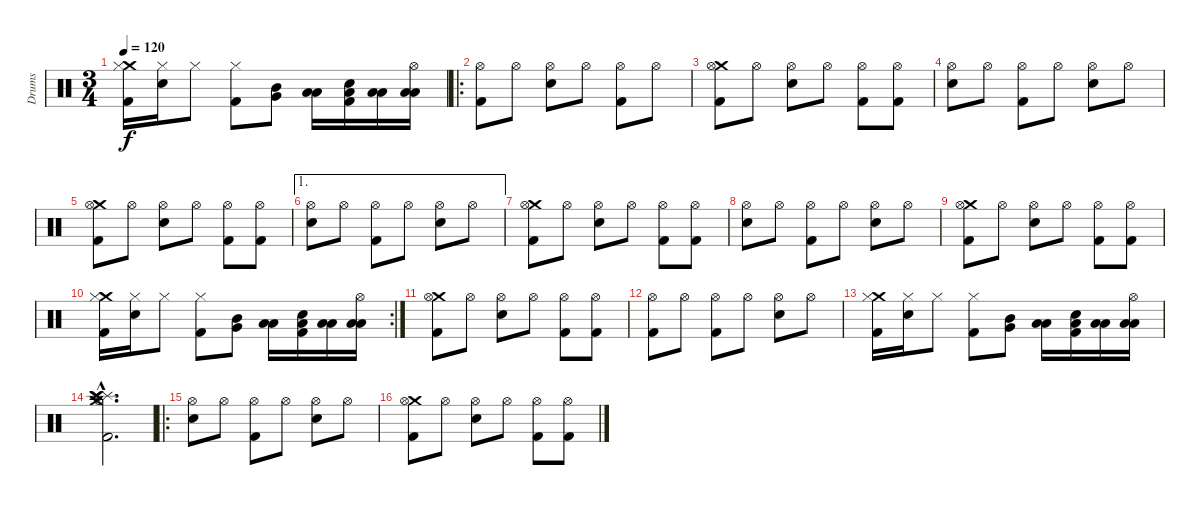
\track ("Drums" "Drums") {instrument percussion}
\staff {score}
\articulation defaults
\ts (3 4)
\tempo 120
\clef neutral
\ks c
("Crash medium (hit)" "Hi-Hat (closed)" "Kick (hit) 2").16{dy f} ("Hi-Hat (closed)" "Electric Snare (hit)").16 "Hi-Hat (closed)".8 ("Hi-Hat (closed)" "Kick (hit) 2").8 ("Very Low Tom (hit)" "Mid Tom (hit)").8 ("Low Floor Tom (hit)" "Low Tom (hit)").16 ("Kick (hit) 2" "Low Tom (hit)" "Electric Snare (hit)").16 ("Low Floor Tom (hit)" "Low Tom (hit)").16 ("Low Floor Tom (hit)" "Low Tom (hit)" "Hi-Hat (open)").16 |
\ro
("Kick (hit) 2" "Hi-Hat (open)").8 "Hi-Hat (open)".8 ("Electric Snare (hit)" "Hi-Hat (open)").8 "Hi-Hat (open)".8 ("Kick (hit) 2" "Hi-Hat (open)").8 "Hi-Hat (open)".8 |
("Crash medium (hit)" "Kick (hit) 2" "Hi-Hat (open)").8 "Hi-Hat (open)".8 ("Electric Snare (hit)" "Hi-Hat (open)").8 "Hi-Hat (open)".8 ("Kick (hit) 2" "Hi-Hat (open)").8 ("Kick (hit) 2" "Hi-Hat (open)").8 |
("Electric Snare (hit)" "Hi-Hat (open)").8 "Hi-Hat (open)".8 ("Kick (hit) 2" "Hi-Hat (open)").8 "Hi-Hat (open)".8 ("Electric Snare (hit)" "Hi-Hat (open)").8 "Hi-Hat (open)".8 |
("Crash medium (hit)" "Kick (hit) 2" "Hi-Hat (open)").8 "Hi-Hat (open)".8 ("Electric Snare (hit)" "Hi-Hat (open)").8 "Hi-Hat (open)".8 ("Kick (hit) 2" "Hi-Hat (open)").8 ("Kick (hit) 2" "Hi-Hat (open)").8 |
\ae 1
("Electric Snare (hit)" "Hi-Hat (open)").8 "Hi-Hat (open)".8 ("Kick (hit) 2" "Hi-Hat (open)").8 "Hi-Hat (open)".8 ("Electric Snare (hit)" "Hi-Hat (open)").8 "Hi-Hat (open)".8 |
("Crash medium (hit)" "Kick (hit) 2" "Hi-Hat (open)").8 "Hi-Hat (open)".8 ("Electric Snare (hit)" "Hi-Hat (open)").8 "Hi-Hat (open)".8 ("Kick (hit) 2" "Hi-Hat (open)").8 ("Kick (hit) 2" "Hi-Hat (open)").8 |
("Electric Snare (hit)" "Hi-Hat (open)").8 "Hi-Hat (open)".8 ("Kick (hit) 2" "Hi-Hat (open)").8 "Hi-Hat (open)".8 ("Electric Snare (hit)" "Hi-Hat (open)").8 "Hi-Hat (open)".8 |
("Crash medium (hit)" "Kick (hit) 2" "Hi-Hat (open)").8 "Hi-Hat (open)".8 ("Electric Snare (hit)" "Hi-Hat (open)").8 "Hi-Hat (open)".8 ("Kick (hit) 2" "Hi-Hat (open)").8 ("Kick (hit) 2" "Hi-Hat (open)").8 |
\rc 2
("Crash medium (hit)" "Hi-Hat (closed)" "Kick (hit) 2").16 ("Hi-Hat (closed)" "Electric Snare (hit)").16 "Hi-Hat (closed)".8 ("Hi-Hat (closed)" "Kick (hit) 2").8 ("Very Low Tom (hit)" "Mid Tom (hit)").8 ("Low Floor Tom (hit)" "Low Tom (hit)").16 ("Kick (hit) 2" "Low Tom (hit)" "Electric Snare (hit)").16 ("Low Floor Tom (hit)" "Low Tom (hit)").16 ("Low Floor Tom (hit)" "Low Tom (hit)" "Hi-Hat (open)").16 |
("Crash medium (hit)" "Kick (hit) 2" "Hi-Hat (open)").8 "Hi-Hat (open)".8 ("Electric Snare (hit)" "Hi-Hat (open)").8 "Hi-Hat (open)".8 ("Kick (hit) 2" "Hi-Hat (open)").8 ("Kick (hit) 2" "Hi-Hat (open)").8 |
("Kick (hit) 2" "Hi-Hat (open)").8 "Hi-Hat (open)".8 ("Kick (hit) 2" "Hi-Hat (open)").8 "Hi-Hat (open)".8 ("Electric Snare (hit)" "Hi-Hat (open)").8 "Hi-Hat (open)".8 |
("Crash medium (hit)" "Hi-Hat (closed)" "Kick (hit) 2").16 ("Hi-Hat (closed)" "Electric Snare (hit)").16 "Hi-Hat (closed)".8 ("Hi-Hat (closed)" "Kick (hit) 2").8 ("Very Low Tom (hit)" "Mid Tom (hit)").8 ("Low Floor Tom (hit)" "Low Tom (hit)").16 ("Kick (hit) 2" "Low Tom (hit)" "Electric Snare (hit)").16 ("Low Floor Tom (hit)" "Low Tom (hit)").16 ("Low Floor Tom (hit)" "Low Tom (hit)" "Hi-Hat (open)").16 |
("Splash (hit)"{hac} "Crash medium (hit)"{hac} "Hi-Hat (open)"{hac} "Kick (hit) 2"{hac} "Crash high (hit)"{hac} "Crash high (hit)"{hac}).2{d} |
\ro
("Electric Snare (hit)" "Hi-Hat (open)").8 "Hi-Hat (open)".8 ("Kick (hit) 2" "Hi-Hat (open)").8 "Hi-Hat (open)".8 ("Electric Snare (hit)" "Hi-Hat (open)").8 "Hi-Hat (open)".8 |
("Crash medium (hit)" "Kick (hit) 2" "Hi-Hat (open)").8 "Hi-Hat (open)".8 ("Electric Snare (hit)" "Hi-Hat (open)").8 "Hi-Hat (open)".8 ("Kick (hit) 2" "Hi-Hat (open)").8 ("Kick (hit) 2" "Hi-Hat (open)").8
